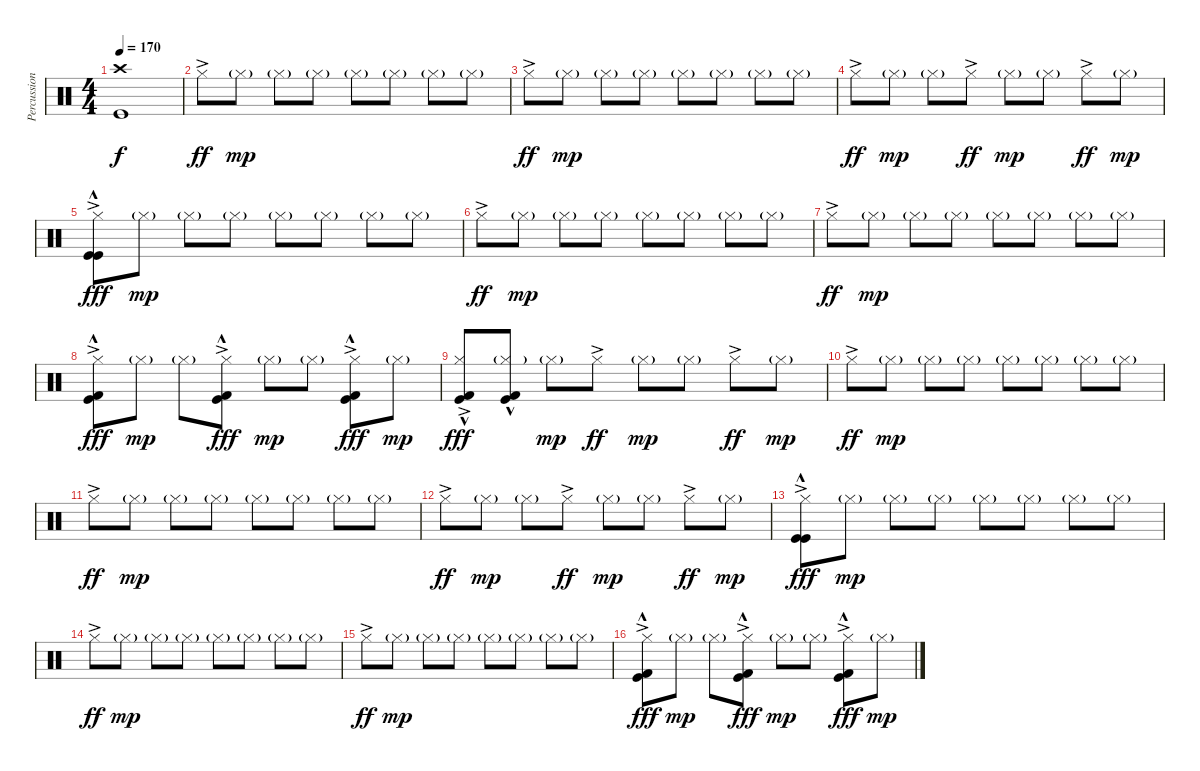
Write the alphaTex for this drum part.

\track ("Percussion" "Percussion") {instrument percussion}
\staff {score}
\articulation defaults
\ts (4 4)
\tempo 170
\clef neutral
\ks c
("Crash high (hit)" "Kick (hit)").1{dy f} |
"Hi-Hat (closed)"{ac}.8{dy ff} "Hi-Hat (closed)"{g}.8{dy mp} "Hi-Hat (closed)"{g}.8 "Hi-Hat (closed)"{g}.8 "Hi-Hat (closed)"{g}.8 "Hi-Hat (closed)"{g}.8 "Hi-Hat (closed)"{g}.8 "Hi-Hat (closed)"{g}.8 |
"Hi-Hat (closed)"{ac}.8{dy ff} "Hi-Hat (closed)"{g}.8{dy mp} "Hi-Hat (closed)"{g}.8 "Hi-Hat (closed)"{g}.8 "Hi-Hat (closed)"{g}.8 "Hi-Hat (closed)"{g}.8 "Hi-Hat (closed)"{g}.8 "Hi-Hat (closed)"{g}.8 |
"Hi-Hat (closed)"{ac}.8{dy ff} "Hi-Hat (closed)"{g}.8{dy mp} "Hi-Hat (closed)"{g}.8 "Hi-Hat (closed)"{ac}.8{dy ff} "Hi-Hat (closed)"{g}.8{dy mp} "Hi-Hat (closed)"{g}.8 "Hi-Hat (closed)"{ac}.8{dy ff} "Hi-Hat (closed)"{g}.8{dy mp} |
("Hi-Hat (closed)"{ac} "Kick (hit)"{hac} "Kick (hit)"{hac}).8{dy fff} "Hi-Hat (closed)"{g}.8{dy mp} "Hi-Hat (closed)"{g}.8 "Hi-Hat (closed)"{g}.8 "Hi-Hat (closed)"{g}.8 "Hi-Hat (closed)"{g}.8 "Hi-Hat (closed)"{g}.8 "Hi-Hat (closed)"{g}.8 |
"Hi-Hat (closed)"{ac}.8{dy ff} "Hi-Hat (closed)"{g}.8{dy mp} "Hi-Hat (closed)"{g}.8 "Hi-Hat (closed)"{g}.8 "Hi-Hat (closed)"{g}.8 "Hi-Hat (closed)"{g}.8 "Hi-Hat (closed)"{g}.8 "Hi-Hat (closed)"{g}.8 |
"Hi-Hat (closed)"{ac}.8{dy ff} "Hi-Hat (closed)"{g}.8{dy mp} "Hi-Hat (closed)"{g}.8 "Hi-Hat (closed)"{g}.8 "Hi-Hat (closed)"{g}.8 "Hi-Hat (closed)"{g}.8 "Hi-Hat (closed)"{g}.8 "Hi-Hat (closed)"{g}.8 |
("Hi-Hat (closed)"{ac} "Kick (hit) 2"{hac} "Kick (hit)"{hac}).8{dy fff} "Hi-Hat (closed)"{g}.8{dy mp} "Hi-Hat (closed)"{g}.8 ("Hi-Hat (closed)"{ac} "Kick (hit)"{hac} "Kick (hit) 2"{hac}).8{dy fff} "Hi-Hat (closed)"{g}.8{dy mp} "Hi-Hat (closed)"{g}.8 ("Hi-Hat (closed)"{ac} "Kick (hit) 2"{hac} "Kick (hit)"{hac}).8{dy fff} "Hi-Hat (closed)"{g}.8{dy mp} |
("Hi-Hat (closed)"{ac} "Kick (hit) 2"{hac} "Kick (hit)"{hac}).8{dy fff} ("Hi-Hat (closed)"{g} "Kick (hit) 2"{hac} "Kick (hit)"{hac}).8 "Hi-Hat (closed)"{g}.8{dy mp} "Hi-Hat (closed)"{ac}.8{dy ff} "Hi-Hat (closed)"{g}.8{dy mp} "Hi-Hat (closed)"{g}.8 "Hi-Hat (closed)"{ac}.8{dy ff} "Hi-Hat (closed)"{g}.8{dy mp} |
"Hi-Hat (closed)"{ac}.8{dy ff} "Hi-Hat (closed)"{g}.8{dy mp} "Hi-Hat (closed)"{g}.8 "Hi-Hat (closed)"{g}.8 "Hi-Hat (closed)"{g}.8 "Hi-Hat (closed)"{g}.8 "Hi-Hat (closed)"{g}.8 "Hi-Hat (closed)"{g}.8 |
"Hi-Hat (closed)"{ac}.8{dy ff} "Hi-Hat (closed)"{g}.8{dy mp} "Hi-Hat (closed)"{g}.8 "Hi-Hat (closed)"{g}.8 "Hi-Hat (closed)"{g}.8 "Hi-Hat (closed)"{g}.8 "Hi-Hat (closed)"{g}.8 "Hi-Hat (closed)"{g}.8 |
"Hi-Hat (closed)"{ac}.8{dy ff} "Hi-Hat (closed)"{g}.8{dy mp} "Hi-Hat (closed)"{g}.8 "Hi-Hat (closed)"{ac}.8{dy ff} "Hi-Hat (closed)"{g}.8{dy mp} "Hi-Hat (closed)"{g}.8 "Hi-Hat (closed)"{ac}.8{dy ff} "Hi-Hat (closed)"{g}.8{dy mp} |
("Hi-Hat (closed)"{ac} "Kick (hit)"{hac} "Kick (hit)"{hac}).8{dy fff} "Hi-Hat (closed)"{g}.8{dy mp} "Hi-Hat (closed)"{g}.8 "Hi-Hat (closed)"{g}.8 "Hi-Hat (closed)"{g}.8 "Hi-Hat (closed)"{g}.8 "Hi-Hat (closed)"{g}.8 "Hi-Hat (closed)"{g}.8 |
"Hi-Hat (closed)"{ac}.8{dy ff} "Hi-Hat (closed)"{g}.8{dy mp} "Hi-Hat (closed)"{g}.8 "Hi-Hat (closed)"{g}.8 "Hi-Hat (closed)"{g}.8 "Hi-Hat (closed)"{g}.8 "Hi-Hat (closed)"{g}.8 "Hi-Hat (closed)"{g}.8 |
"Hi-Hat (closed)"{ac}.8{dy ff} "Hi-Hat (closed)"{g}.8{dy mp} "Hi-Hat (closed)"{g}.8 "Hi-Hat (closed)"{g}.8 "Hi-Hat (closed)"{g}.8 "Hi-Hat (closed)"{g}.8 "Hi-Hat (closed)"{g}.8 "Hi-Hat (closed)"{g}.8 |
("Hi-Hat (closed)"{ac} "Kick (hit) 2"{hac} "Kick (hit)"{hac}).8{dy fff} "Hi-Hat (closed)"{g}.8{dy mp} "Hi-Hat (closed)"{g}.8 ("Hi-Hat (closed)"{ac} "Kick (hit)"{hac} "Kick (hit) 2"{hac}).8{dy fff} "Hi-Hat (closed)"{g}.8{dy mp} "Hi-Hat (closed)"{g}.8 ("Hi-Hat (closed)"{ac} "Kick (hit) 2"{hac} "Kick (hit)"{hac}).8{dy fff} "Hi-Hat (closed)"{g}.8{dy mp}
